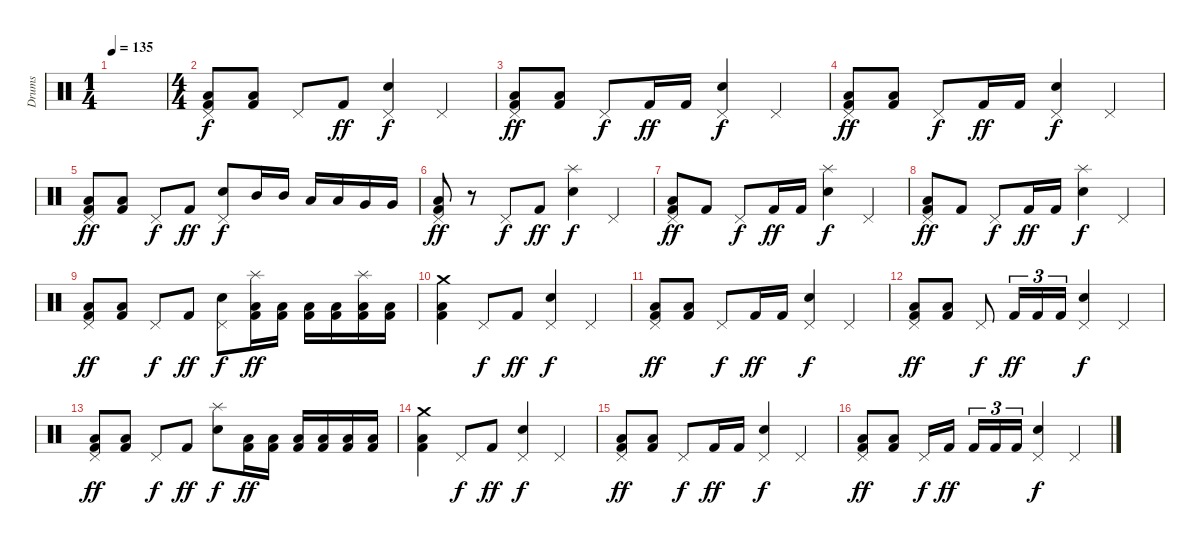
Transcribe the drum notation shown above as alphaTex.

\track ("Drums" "Drums") {instrument percussion}
\staff {score}
\articulation defaults
\ts (1 4)
\tempo 135
\clef neutral
\ks c
|
\ts (4 4)
("Pedal Hi-Hat (hit)" "Low Floor Tom (hit)" "Kick (hit) 2").8 ("Low Floor Tom (hit)" "Kick (hit) 2").8 "Pedal Hi-Hat (hit)".8{dy f} "Kick (hit) 2".8{dy ff} ("Pedal Hi-Hat (hit)" "Electric Snare (hit)").4{dy f} "Pedal Hi-Hat (hit)".4 |
("Pedal Hi-Hat (hit)" "Low Floor Tom (hit)" "Kick (hit) 2").8{dy ff} ("Low Floor Tom (hit)" "Kick (hit) 2").8 "Pedal Hi-Hat (hit)".8{dy f} "Kick (hit) 2".16{dy ff} "Kick (hit) 2".16 ("Pedal Hi-Hat (hit)" "Electric Snare (hit)").4{dy f} "Pedal Hi-Hat (hit)".4 |
("Pedal Hi-Hat (hit)" "Low Floor Tom (hit)" "Kick (hit) 2").8{dy ff} ("Low Floor Tom (hit)" "Kick (hit) 2").8 "Pedal Hi-Hat (hit)".8{dy f} "Kick (hit) 2".16{dy ff} "Kick (hit) 2".16 ("Pedal Hi-Hat (hit)" "Electric Snare (hit)").4{dy f} "Pedal Hi-Hat (hit)".4 |
("Pedal Hi-Hat (hit)" "Low Floor Tom (hit)" "Kick (hit) 2").8{dy ff} ("Low Floor Tom (hit)" "Kick (hit) 2").8 "Pedal Hi-Hat (hit)".8{dy f} "Kick (hit) 2".8{dy ff} ("Pedal Hi-Hat (hit)" "Electric Snare (hit)").8{dy f} "Mid Tom (hit)".16 "Mid Tom (hit)".16 "Low Tom (hit)".16 "Low Tom (hit)".16 "Very Low Tom (hit)".16 "Very Low Tom (hit)".16 |
("Pedal Hi-Hat (hit)" "Low Floor Tom (hit)" "Kick (hit) 2").8{dy ff} r.8 "Pedal Hi-Hat (hit)".8{dy f} "Kick (hit) 2".8{dy ff} ("Splash (hit)" "Electric Snare (hit)").4{dy f} "Pedal Hi-Hat (hit)".4 |
("Pedal Hi-Hat (hit)" "Low Floor Tom (hit)" "Kick (hit) 2").8{dy ff} "Kick (hit) 2".8 "Pedal Hi-Hat (hit)".8{dy f} "Kick (hit) 2".16{dy ff} "Kick (hit) 2".16 ("Splash (hit)" "Electric Snare (hit)").4{dy f} "Pedal Hi-Hat (hit)".4 |
("Pedal Hi-Hat (hit)" "Low Floor Tom (hit)" "Kick (hit) 2").8{dy ff} "Kick (hit) 2".8 "Pedal Hi-Hat (hit)".8{dy f} "Kick (hit) 2".16{dy ff} "Kick (hit) 2".16 ("Splash (hit)" "Electric Snare (hit)").4{dy f} "Pedal Hi-Hat (hit)".4 |
("Pedal Hi-Hat (hit)" "Low Floor Tom (hit)" "Kick (hit) 2").8{dy ff} ("Low Floor Tom (hit)" "Kick (hit) 2").8 "Pedal Hi-Hat (hit)".8{dy f} "Kick (hit) 2".8{dy ff} ("Pedal Hi-Hat (hit)" "Electric Snare (hit)").8{dy f} ("Splash (hit)" "Low Floor Tom (hit)" "Kick (hit) 2").16{dy ff} ("Low Floor Tom (hit)" "Kick (hit) 2").16 ("Low Floor Tom (hit)" "Kick (hit) 2").16 ("Low Floor Tom (hit)" "Kick (hit) 2").16 ("Splash (hit)" "Low Floor Tom (hit)" "Kick (hit) 2").16 ("Low Floor Tom (hit)" "Kick (hit) 2").16 |
("Crash medium (hit)" "Low Floor Tom (hit)" "Kick (hit) 2").4 "Pedal Hi-Hat (hit)".8{dy f} "Kick (hit) 2".8{dy ff} ("Pedal Hi-Hat (hit)" "Electric Snare (hit)").4{dy f} "Pedal Hi-Hat (hit)".4 |
("Pedal Hi-Hat (hit)" "Low Floor Tom (hit)" "Kick (hit) 2").8{dy ff} ("Low Floor Tom (hit)" "Kick (hit) 2").8 "Pedal Hi-Hat (hit)".8{dy f} "Kick (hit) 2".16{dy ff} "Kick (hit) 2".16 ("Pedal Hi-Hat (hit)" "Electric Snare (hit)").4{dy f} "Pedal Hi-Hat (hit)".4 |
("Pedal Hi-Hat (hit)" "Low Floor Tom (hit)" "Kick (hit) 2").8{dy ff} ("Low Floor Tom (hit)" "Kick (hit) 2").8 "Pedal Hi-Hat (hit)".8{dy f} "Kick (hit) 2".16{tu (3 2) dy ff} "Kick (hit) 2".16{tu (3 2)} "Kick (hit) 2".16{tu (3 2)} ("Pedal Hi-Hat (hit)" "Electric Snare (hit)").4{dy f} "Pedal Hi-Hat (hit)".4 |
("Pedal Hi-Hat (hit)" "Low Floor Tom (hit)" "Kick (hit) 2").8{dy ff} ("Low Floor Tom (hit)" "Kick (hit) 2").8 "Pedal Hi-Hat (hit)".8{dy f} "Kick (hit) 2".8{dy ff} ("Splash (hit)" "Electric Snare (hit)").8{dy f} ("Low Floor Tom (hit)" "Kick (hit) 2").16{dy ff} ("Low Floor Tom (hit)" "Kick (hit) 2").16 ("Low Floor Tom (hit)" "Kick (hit) 2").16 ("Low Floor Tom (hit)" "Kick (hit) 2").16 ("Low Floor Tom (hit)" "Kick (hit) 2").16 ("Low Floor Tom (hit)" "Kick (hit) 2").16 |
("Crash medium (hit)" "Low Floor Tom (hit)" "Kick (hit) 2").4 "Pedal Hi-Hat (hit)".8{dy f} "Kick (hit) 2".8{dy ff} ("Pedal Hi-Hat (hit)" "Electric Snare (hit)").4{dy f} "Pedal Hi-Hat (hit)".4 |
("Pedal Hi-Hat (hit)" "Low Floor Tom (hit)" "Kick (hit) 2").8{dy ff} ("Low Floor Tom (hit)" "Kick (hit) 2").8 "Pedal Hi-Hat (hit)".8{dy f} "Kick (hit) 2".16{dy ff} "Kick (hit) 2".16 ("Pedal Hi-Hat (hit)" "Electric Snare (hit)").4{dy f} "Pedal Hi-Hat (hit)".4 |
("Pedal Hi-Hat (hit)" "Low Floor Tom (hit)" "Kick (hit) 2").8{dy ff} ("Low Floor Tom (hit)" "Kick (hit) 2").8 "Pedal Hi-Hat (hit)".16{dy f} "Kick (hit) 2".16{dy ff} "Kick (hit) 2".16{tu (3 2)} "Kick (hit) 2".16{tu (3 2)} "Kick (hit) 2".16{tu (3 2)} ("Pedal Hi-Hat (hit)" "Electric Snare (hit)").4{dy f} "Pedal Hi-Hat (hit)".4
